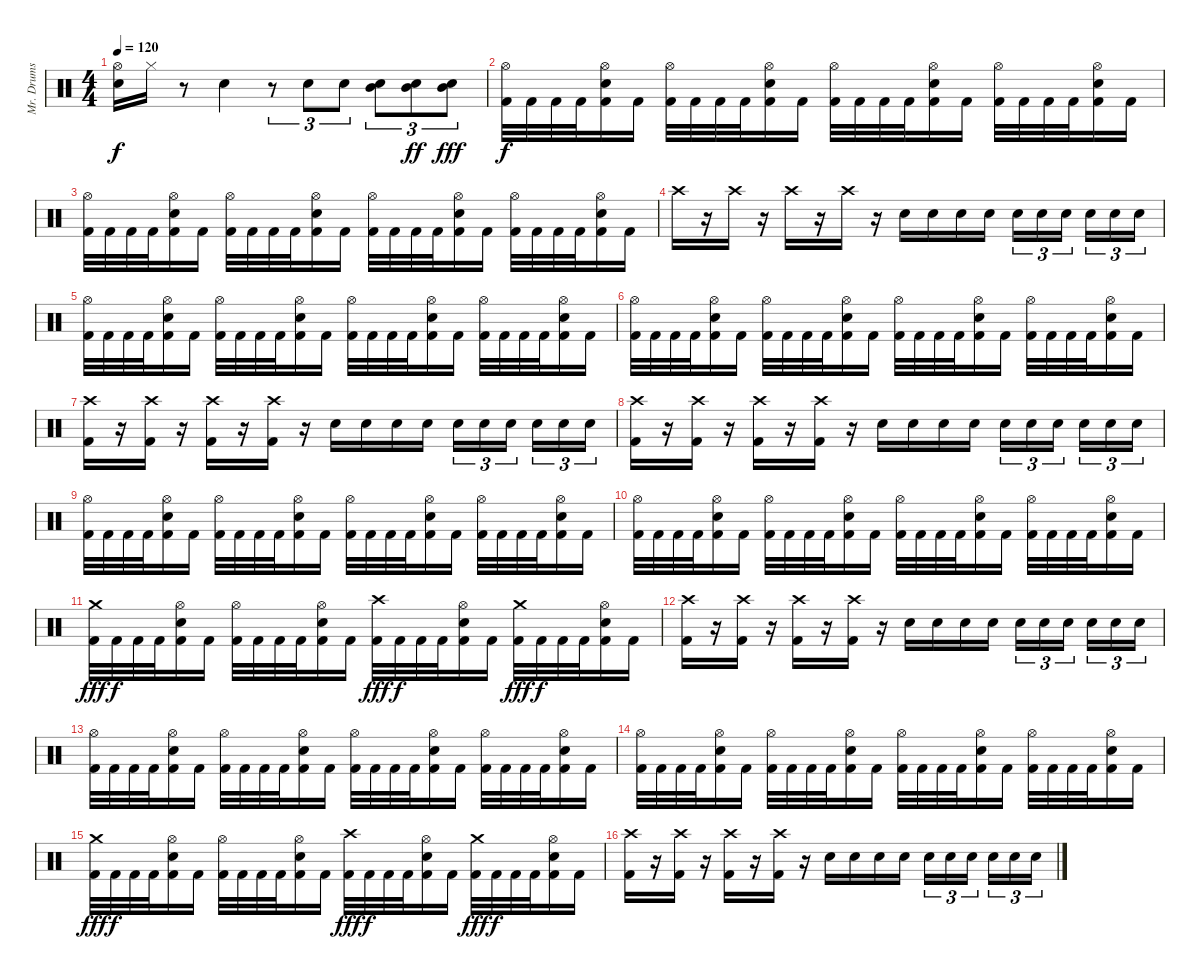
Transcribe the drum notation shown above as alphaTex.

\track ("Mr. Drums" "Mr. Drums") {instrument percussion}
\staff {score}
\articulation defaults
\ts (4 4)
\tempo 120
\clef neutral
\ks c
("Metronome (bell)" "Hi-Hat (open)").16{dy f} "Hi-Hat (closed)".16 r.8 "Electric Snare (hit)".4 r.8{tu (3 2)} "Electric Snare (hit)".8{tu (3 2)} "Electric Snare (hit)".8{tu (3 2)} ("Mid Tom (hit)" "Electric Snare (hit)").8{tu (3 2)} ("Mid Tom (hit)" "Electric Snare (hit)").8{tu (3 2) dy ff} ("Mid Tom (hit)" "Electric Snare (hit)").8{tu (3 2) dy fff} |
("Hi-Hat (open)" "Kick (hit) 2").32{dy f} "Kick (hit) 2".32 "Kick (hit) 2".32 "Kick (hit) 2".32 ("Hi-Hat (open)" "Electric Snare (hit)" "Kick (hit) 2").16 "Kick (hit) 2".16 ("Hi-Hat (open)" "Kick (hit) 2").32 "Kick (hit) 2".32 "Kick (hit) 2".32 "Kick (hit) 2".32 ("Hi-Hat (open)" "Electric Snare (hit)" "Kick (hit) 2").16 "Kick (hit) 2".16 ("Hi-Hat (open)" "Kick (hit) 2").32 "Kick (hit) 2".32 "Kick (hit) 2".32 "Kick (hit) 2".32 ("Hi-Hat (open)" "Electric Snare (hit)" "Kick (hit) 2").16 "Kick (hit) 2".16 ("Hi-Hat (open)" "Kick (hit) 2").32 "Kick (hit) 2".32 "Kick (hit) 2".32 "Kick (hit) 2".32 ("Hi-Hat (open)" "Electric Snare (hit)" "Kick (hit) 2").16 "Kick (hit) 2".16 |
("Hi-Hat (open)" "Kick (hit) 2").32 "Kick (hit) 2".32 "Kick (hit) 2".32 "Kick (hit) 2".32 ("Hi-Hat (open)" "Electric Snare (hit)" "Kick (hit) 2").16 "Kick (hit) 2".16 ("Hi-Hat (open)" "Kick (hit) 2").32 "Kick (hit) 2".32 "Kick (hit) 2".32 "Kick (hit) 2".32 ("Hi-Hat (open)" "Electric Snare (hit)" "Kick (hit) 2").16 "Kick (hit) 2".16 ("Hi-Hat (open)" "Kick (hit) 2").32 "Kick (hit) 2".32 "Kick (hit) 2".32 "Kick (hit) 2".32 ("Hi-Hat (open)" "Electric Snare (hit)" "Kick (hit) 2").16 "Kick (hit) 2".16 ("Hi-Hat (open)" "Kick (hit) 2").32 "Kick (hit) 2".32 "Kick (hit) 2".32 "Kick (hit) 2".32 ("Hi-Hat (open)" "Electric Snare (hit)" "Kick (hit) 2").16 "Kick (hit) 2".16 |
"Crash high (hit)".16 r.16 "Crash high (hit)".16 r.16 "Crash high (hit)".16 r.16 "Crash high (hit)".16 r.16 "Electric Snare (hit)".16 "Electric Snare (hit)".16 "Electric Snare (hit)".16 "Electric Snare (hit)".16 "Electric Snare (hit)".16{tu (3 2)} "Electric Snare (hit)".16{tu (3 2)} "Electric Snare (hit)".16{tu (3 2)} "Electric Snare (hit)".16{tu (3 2)} "Electric Snare (hit)".16{tu (3 2)} "Electric Snare (hit)".16{tu (3 2)} |
("Hi-Hat (open)" "Kick (hit) 2").32 "Kick (hit) 2".32 "Kick (hit) 2".32 "Kick (hit) 2".32 ("Hi-Hat (open)" "Electric Snare (hit)" "Kick (hit) 2").16 "Kick (hit) 2".16 ("Hi-Hat (open)" "Kick (hit) 2").32 "Kick (hit) 2".32 "Kick (hit) 2".32 "Kick (hit) 2".32 ("Hi-Hat (open)" "Electric Snare (hit)" "Kick (hit) 2").16 "Kick (hit) 2".16 ("Hi-Hat (open)" "Kick (hit) 2").32 "Kick (hit) 2".32 "Kick (hit) 2".32 "Kick (hit) 2".32 ("Hi-Hat (open)" "Electric Snare (hit)" "Kick (hit) 2").16 "Kick (hit) 2".16 ("Hi-Hat (open)" "Kick (hit) 2").32 "Kick (hit) 2".32 "Kick (hit) 2".32 "Kick (hit) 2".32 ("Hi-Hat (open)" "Electric Snare (hit)" "Kick (hit) 2").16 "Kick (hit) 2".16 |
("Hi-Hat (open)" "Kick (hit) 2").32 "Kick (hit) 2".32 "Kick (hit) 2".32 "Kick (hit) 2".32 ("Hi-Hat (open)" "Electric Snare (hit)" "Kick (hit) 2").16 "Kick (hit) 2".16 ("Hi-Hat (open)" "Kick (hit) 2").32 "Kick (hit) 2".32 "Kick (hit) 2".32 "Kick (hit) 2".32 ("Hi-Hat (open)" "Electric Snare (hit)" "Kick (hit) 2").16 "Kick (hit) 2".16 ("Hi-Hat (open)" "Kick (hit) 2").32 "Kick (hit) 2".32 "Kick (hit) 2".32 "Kick (hit) 2".32 ("Hi-Hat (open)" "Electric Snare (hit)" "Kick (hit) 2").16 "Kick (hit) 2".16 ("Hi-Hat (open)" "Kick (hit) 2").32 "Kick (hit) 2".32 "Kick (hit) 2".32 "Kick (hit) 2".32 ("Hi-Hat (open)" "Electric Snare (hit)" "Kick (hit) 2").16 "Kick (hit) 2".16 |
("Crash high (hit)" "Kick (hit) 2").16 r.16 ("Crash high (hit)" "Kick (hit) 2").16 r.16 ("Crash high (hit)" "Kick (hit) 2").16 r.16 ("Crash high (hit)" "Kick (hit) 2").16 r.16 "Electric Snare (hit)".16 "Electric Snare (hit)".16 "Electric Snare (hit)".16 "Electric Snare (hit)".16 "Electric Snare (hit)".16{tu (3 2)} "Electric Snare (hit)".16{tu (3 2)} "Electric Snare (hit)".16{tu (3 2)} "Electric Snare (hit)".16{tu (3 2)} "Electric Snare (hit)".16{tu (3 2)} "Electric Snare (hit)".16{tu (3 2)} |
("Crash high (hit)" "Kick (hit) 2").16 r.16 ("Crash high (hit)" "Kick (hit) 2").16 r.16 ("Crash high (hit)" "Kick (hit) 2").16 r.16 ("Crash high (hit)" "Kick (hit) 2").16 r.16 "Electric Snare (hit)".16 "Electric Snare (hit)".16 "Electric Snare (hit)".16 "Electric Snare (hit)".16 "Electric Snare (hit)".16{tu (3 2)} "Electric Snare (hit)".16{tu (3 2)} "Electric Snare (hit)".16{tu (3 2)} "Electric Snare (hit)".16{tu (3 2)} "Electric Snare (hit)".16{tu (3 2)} "Electric Snare (hit)".16{tu (3 2)} |
("Hi-Hat (open)" "Kick (hit) 2").32 "Kick (hit) 2".32 "Kick (hit) 2".32 "Kick (hit) 2".32 ("Hi-Hat (open)" "Electric Snare (hit)" "Kick (hit) 2").16 "Kick (hit) 2".16 ("Hi-Hat (open)" "Kick (hit) 2").32 "Kick (hit) 2".32 "Kick (hit) 2".32 "Kick (hit) 2".32 ("Hi-Hat (open)" "Electric Snare (hit)" "Kick (hit) 2").16 "Kick (hit) 2".16 ("Hi-Hat (open)" "Kick (hit) 2").32 "Kick (hit) 2".32 "Kick (hit) 2".32 "Kick (hit) 2".32 ("Hi-Hat (open)" "Electric Snare (hit)" "Kick (hit) 2").16 "Kick (hit) 2".16 ("Hi-Hat (open)" "Kick (hit) 2").32 "Kick (hit) 2".32 "Kick (hit) 2".32 "Kick (hit) 2".32 ("Hi-Hat (open)" "Electric Snare (hit)" "Kick (hit) 2").16 "Kick (hit) 2".16 |
("Hi-Hat (open)" "Kick (hit) 2").32 "Kick (hit) 2".32 "Kick (hit) 2".32 "Kick (hit) 2".32 ("Hi-Hat (open)" "Electric Snare (hit)" "Kick (hit) 2").16 "Kick (hit) 2".16 ("Hi-Hat (open)" "Kick (hit) 2").32 "Kick (hit) 2".32 "Kick (hit) 2".32 "Kick (hit) 2".32 ("Hi-Hat (open)" "Electric Snare (hit)" "Kick (hit) 2").16 "Kick (hit) 2".16 ("Hi-Hat (open)" "Kick (hit) 2").32 "Kick (hit) 2".32 "Kick (hit) 2".32 "Kick (hit) 2".32 ("Hi-Hat (open)" "Electric Snare (hit)" "Kick (hit) 2").16 "Kick (hit) 2".16 ("Hi-Hat (open)" "Kick (hit) 2").32 "Kick (hit) 2".32 "Kick (hit) 2".32 "Kick (hit) 2".32 ("Hi-Hat (open)" "Electric Snare (hit)" "Kick (hit) 2").16 "Kick (hit) 2".16 |
("Crash medium (hit)" "Kick (hit) 2").32{dy fff} "Kick (hit) 2".32{dy f} "Kick (hit) 2".32 "Kick (hit) 2".32 ("Hi-Hat (open)" "Electric Snare (hit)" "Kick (hit) 2").16 "Kick (hit) 2".16 ("Hi-Hat (open)" "Kick (hit) 2").32 "Kick (hit) 2".32 "Kick (hit) 2".32 "Kick (hit) 2".32 ("Hi-Hat (open)" "Electric Snare (hit)" "Kick (hit) 2").16 "Kick (hit) 2".16 ("Crash high (hit)" "Kick (hit) 2").32{dy fff} "Kick (hit) 2".32{dy f} "Kick (hit) 2".32 "Kick (hit) 2".32 ("Hi-Hat (open)" "Electric Snare (hit)" "Kick (hit) 2").16 "Kick (hit) 2".16 ("Crash medium (hit)" "Kick (hit) 2").32{dy fff} "Kick (hit) 2".32{dy f} "Kick (hit) 2".32 "Kick (hit) 2".32 ("Hi-Hat (open)" "Electric Snare (hit)" "Kick (hit) 2").16 "Kick (hit) 2".16 |
("Crash high (hit)" "Kick (hit) 2").16 r.16 ("Crash high (hit)" "Kick (hit) 2").16 r.16 ("Crash high (hit)" "Kick (hit) 2").16 r.16 ("Crash high (hit)" "Kick (hit) 2").16 r.16 "Electric Snare (hit)".16 "Electric Snare (hit)".16 "Electric Snare (hit)".16 "Electric Snare (hit)".16 "Electric Snare (hit)".16{tu (3 2)} "Electric Snare (hit)".16{tu (3 2)} "Electric Snare (hit)".16{tu (3 2)} "Electric Snare (hit)".16{tu (3 2)} "Electric Snare (hit)".16{tu (3 2)} "Electric Snare (hit)".16{tu (3 2)} |
("Hi-Hat (open)" "Kick (hit) 2").32 "Kick (hit) 2".32 "Kick (hit) 2".32 "Kick (hit) 2".32 ("Hi-Hat (open)" "Electric Snare (hit)" "Kick (hit) 2").16 "Kick (hit) 2".16 ("Hi-Hat (open)" "Kick (hit) 2").32 "Kick (hit) 2".32 "Kick (hit) 2".32 "Kick (hit) 2".32 ("Hi-Hat (open)" "Electric Snare (hit)" "Kick (hit) 2").16 "Kick (hit) 2".16 ("Hi-Hat (open)" "Kick (hit) 2").32 "Kick (hit) 2".32 "Kick (hit) 2".32 "Kick (hit) 2".32 ("Hi-Hat (open)" "Electric Snare (hit)" "Kick (hit) 2").16 "Kick (hit) 2".16 ("Hi-Hat (open)" "Kick (hit) 2").32 "Kick (hit) 2".32 "Kick (hit) 2".32 "Kick (hit) 2".32 ("Hi-Hat (open)" "Electric Snare (hit)" "Kick (hit) 2").16 "Kick (hit) 2".16 |
("Hi-Hat (open)" "Kick (hit) 2").32 "Kick (hit) 2".32 "Kick (hit) 2".32 "Kick (hit) 2".32 ("Hi-Hat (open)" "Electric Snare (hit)" "Kick (hit) 2").16 "Kick (hit) 2".16 ("Hi-Hat (open)" "Kick (hit) 2").32 "Kick (hit) 2".32 "Kick (hit) 2".32 "Kick (hit) 2".32 ("Hi-Hat (open)" "Electric Snare (hit)" "Kick (hit) 2").16 "Kick (hit) 2".16 ("Hi-Hat (open)" "Kick (hit) 2").32 "Kick (hit) 2".32 "Kick (hit) 2".32 "Kick (hit) 2".32 ("Hi-Hat (open)" "Electric Snare (hit)" "Kick (hit) 2").16 "Kick (hit) 2".16 ("Hi-Hat (open)" "Kick (hit) 2").32 "Kick (hit) 2".32 "Kick (hit) 2".32 "Kick (hit) 2".32 ("Hi-Hat (open)" "Electric Snare (hit)" "Kick (hit) 2").16 "Kick (hit) 2".16 |
("Crash medium (hit)" "Kick (hit) 2").32{dy fff} "Kick (hit) 2".32{dy f} "Kick (hit) 2".32 "Kick (hit) 2".32 ("Hi-Hat (open)" "Electric Snare (hit)" "Kick (hit) 2").16 "Kick (hit) 2".16 ("Hi-Hat (open)" "Kick (hit) 2").32 "Kick (hit) 2".32 "Kick (hit) 2".32 "Kick (hit) 2".32 ("Hi-Hat (open)" "Electric Snare (hit)" "Kick (hit) 2").16 "Kick (hit) 2".16 ("Crash high (hit)" "Kick (hit) 2").32{dy fff} "Kick (hit) 2".32{dy f} "Kick (hit) 2".32 "Kick (hit) 2".32 ("Hi-Hat (open)" "Electric Snare (hit)" "Kick (hit) 2").16 "Kick (hit) 2".16 ("Crash medium (hit)" "Kick (hit) 2").32{dy fff} "Kick (hit) 2".32{dy f} "Kick (hit) 2".32 "Kick (hit) 2".32 ("Hi-Hat (open)" "Electric Snare (hit)" "Kick (hit) 2").16 "Kick (hit) 2".16 |
("Crash high (hit)" "Kick (hit) 2").16 r.16 ("Crash high (hit)" "Kick (hit) 2").16 r.16 ("Crash high (hit)" "Kick (hit) 2").16 r.16 ("Crash high (hit)" "Kick (hit) 2").16 r.16 "Electric Snare (hit)".16 "Electric Snare (hit)".16 "Electric Snare (hit)".16 "Electric Snare (hit)".16 "Electric Snare (hit)".16{tu (3 2)} "Electric Snare (hit)".16{tu (3 2)} "Electric Snare (hit)".16{tu (3 2)} "Electric Snare (hit)".16{tu (3 2)} "Electric Snare (hit)".16{tu (3 2)} "Electric Snare (hit)".16{tu (3 2)}
